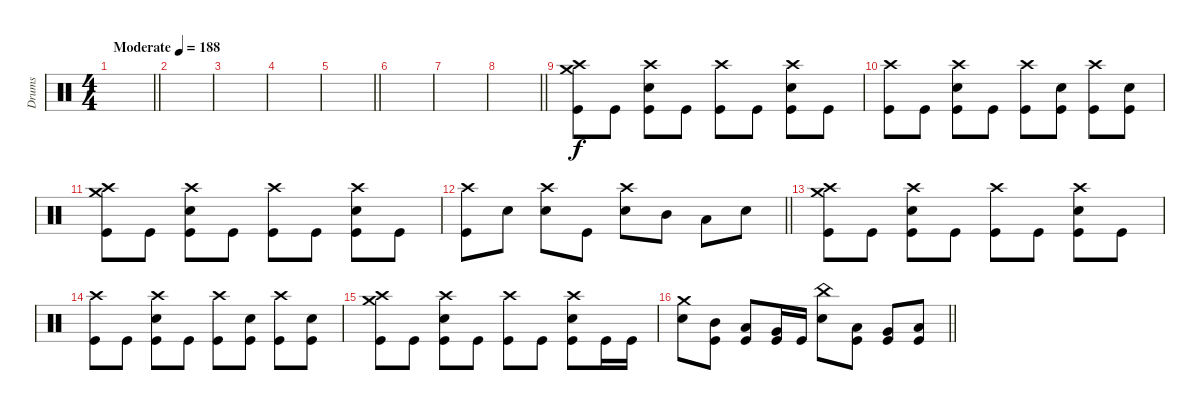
\track ("Drums" "Drums") {instrument percussion}
\staff
\articulation defaults
\ts (4 4)
\tempo (188 "Moderate")
\clef neutral
\barLineRight lightlight
\ks c
|
|
|
|
\barLineRight lightlight
|
|
|
\barLineRight lightlight
|
\section ("" "")
("Crash high (hit)" "Crash medium (hit)" "Kick (hit)").8 "Kick (hit)".8 ("Crash high (hit)" "Electric Snare (hit)" "Kick (hit)").8 "Kick (hit)".8 ("Crash high (hit)" "Kick (hit)").8 "Kick (hit)".8 ("Crash high (hit)" "Electric Snare (hit)" "Kick (hit)").8 "Kick (hit)".8 |
("Crash high (hit)" "Kick (hit)").8 "Kick (hit)".8 ("Crash high (hit)" "Electric Snare (hit)" "Kick (hit)").8 "Kick (hit)".8 ("Crash high (hit)" "Kick (hit)").8 ("Electric Snare (hit)" "Kick (hit)").8 ("Crash high (hit)" "Kick (hit)").8 ("Electric Snare (hit)" "Kick (hit)").8 |
("Crash high (hit)" "Crash medium (hit)" "Kick (hit)").8 "Kick (hit)".8 ("Crash high (hit)" "Electric Snare (hit)" "Kick (hit)").8 "Kick (hit)".8 ("Crash high (hit)" "Kick (hit)").8 "Kick (hit)".8 ("Crash high (hit)" "Electric Snare (hit)" "Kick (hit)").8 "Kick (hit)".8 |
\barLineRight lightlight
("Crash high (hit)" "Kick (hit)").8 "Electric Snare (hit)".8 ("Crash high (hit)" "Electric Snare (hit)").8 "Kick (hit)".8 ("Crash high (hit)" "Electric Snare (hit)").8 "Mid Tom (hit)".8 "Low Tom (hit)".8 "Electric Snare (hit)".8 |
("Crash high (hit)" "Crash medium (hit)" "Kick (hit)").8 "Kick (hit)".8 ("Crash high (hit)" "Electric Snare (hit)" "Kick (hit)").8 "Kick (hit)".8 ("Crash high (hit)" "Kick (hit)").8 "Kick (hit)".8 ("Crash high (hit)" "Electric Snare (hit)" "Kick (hit)").8 "Kick (hit)".8 |
("Crash high (hit)" "Kick (hit)").8 "Kick (hit)".8 ("Crash high (hit)" "Electric Snare (hit)" "Kick (hit)").8 "Kick (hit)".8 ("Crash high (hit)" "Kick (hit)").8 ("Electric Snare (hit)" "Kick (hit)").8 ("Crash high (hit)" "Kick (hit)").8 ("Electric Snare (hit)" "Kick (hit)").8 |
("Crash high (hit)" "Crash medium (hit)" "Kick (hit)").8 "Kick (hit)".8 ("Crash high (hit)" "Electric Snare (hit)" "Kick (hit)").8 "Kick (hit)".8 ("Crash high (hit)" "Kick (hit)").8 "Kick (hit)".8 ("Crash high (hit)" "Electric Snare (hit)" "Kick (hit)").8 "Kick (hit)".16 "Kick (hit)".16 |
\barLineRight lightlight
("Crash medium (hit)" "Electric Snare (hit)").8 ("Mid Tom (hit)" "Kick (hit)").8 ("Low Tom (hit)" "Kick (hit)").8 ("Very Low Tom (hit)" "Kick (hit)").16 "Kick (hit)".16 ("China (hit)" "Electric Snare (hit)").8 ("Low Tom (hit)" "Kick (hit)").8 ("Very Low Tom (hit)" "Kick (hit)").8 ("Low Floor Tom (hit)" "Kick (hit)").8
